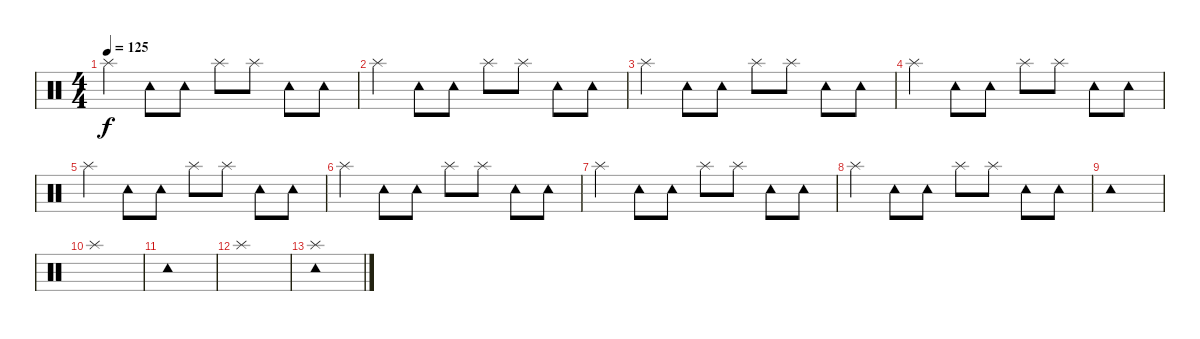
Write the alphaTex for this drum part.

\track "" {instrument percussion}
\staff {score}
\articulation defaults
\ts (4 4)
\tempo 125
\clef neutral
\ks c "Splash (hit)".4{dy f} "Tambourine (hit)".8 "Tambourine (hit)".8 "Splash (hit)".8 "Splash (hit)".8 "Tambourine (hit)".8 "Tambourine (hit)".8
|
"Splash (hit)".4 "Tambourine (hit)".8 "Tambourine (hit)".8 "Splash (hit)".8 "Splash (hit)".8 "Tambourine (hit)".8 "Tambourine (hit)".8 |
"Splash (hit)".4 "Tambourine (hit)".8 "Tambourine (hit)".8 "Splash (hit)".8 "Splash (hit)".8 "Tambourine (hit)".8 "Tambourine (hit)".8 |
"Splash (hit)".4 "Tambourine (hit)".8 "Tambourine (hit)".8 "Splash (hit)".8 "Splash (hit)".8 "Tambourine (hit)".8 "Tambourine (hit)".8 |
"Splash (hit)".4 "Tambourine (hit)".8 "Tambourine (hit)".8 "Splash (hit)".8 "Splash (hit)".8 "Tambourine (hit)".8 "Tambourine (hit)".8 |
"Splash (hit)".4 "Tambourine (hit)".8 "Tambourine (hit)".8 "Splash (hit)".8 "Splash (hit)".8 "Tambourine (hit)".8 "Tambourine (hit)".8 |
"Splash (hit)".4 "Tambourine (hit)".8 "Tambourine (hit)".8 "Splash (hit)".8 "Splash (hit)".8 "Tambourine (hit)".8 "Tambourine (hit)".8 |
"Splash (hit)".4 "Tambourine (hit)".8 "Tambourine (hit)".8 "Splash (hit)".8 "Splash (hit)".8 "Tambourine (hit)".8 "Tambourine (hit)".8 |
"Tambourine (hit)".1 |
"Splash (hit)".1 |
"Tambourine (hit)".1 |
"Splash (hit)".1 |
("Splash (hit)" "Tambourine (hit)").1
